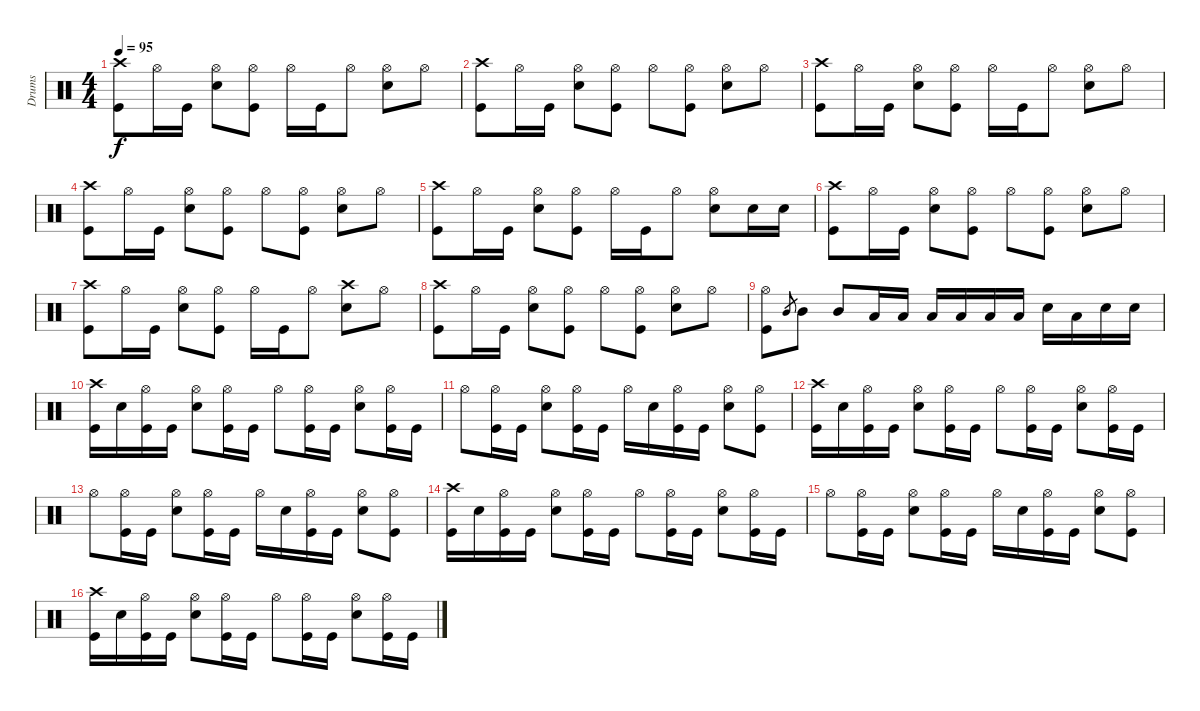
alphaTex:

\track ("Drums" "Drums") {instrument percussion}
\staff {score}
\articulation defaults
\ts (4 4)
\tempo 95
\clef neutral
\ks c
("Crash high (hit)" "Kick (hit)").8{dy f} "Hi-Hat (open)".16 "Kick (hit)".16 ("Hi-Hat (open)" "Electric Snare (hit)").8 ("Hi-Hat (open)" "Kick (hit)").8 "Hi-Hat (open)".16 "Kick (hit)".16 "Hi-Hat (open)".8 ("Hi-Hat (open)" "Electric Snare (hit)").8 "Hi-Hat (open)".8 |
("Crash high (hit)" "Kick (hit)").8 "Hi-Hat (open)".16 "Kick (hit)".16 ("Hi-Hat (open)" "Electric Snare (hit)").8 ("Hi-Hat (open)" "Kick (hit)").8 "Hi-Hat (open)".8 ("Hi-Hat (open)" "Kick (hit)").8 ("Hi-Hat (open)" "Electric Snare (hit)").8 "Hi-Hat (open)".8 |
("Crash high (hit)" "Kick (hit)").8 "Hi-Hat (open)".16 "Kick (hit)".16 ("Hi-Hat (open)" "Electric Snare (hit)").8 ("Hi-Hat (open)" "Kick (hit)").8 "Hi-Hat (open)".16 "Kick (hit)".16 "Hi-Hat (open)".8 ("Hi-Hat (open)" "Electric Snare (hit)").8 "Hi-Hat (open)".8 |
("Crash high (hit)" "Kick (hit)").8 "Hi-Hat (open)".16 "Kick (hit)".16 ("Hi-Hat (open)" "Electric Snare (hit)").8 ("Hi-Hat (open)" "Kick (hit)").8 "Hi-Hat (open)".8 ("Hi-Hat (open)" "Kick (hit)").8 ("Hi-Hat (open)" "Electric Snare (hit)").8 "Hi-Hat (open)".8 |
("Crash high (hit)" "Kick (hit)").8 "Hi-Hat (open)".16 "Kick (hit)".16 ("Hi-Hat (open)" "Electric Snare (hit)").8 ("Hi-Hat (open)" "Kick (hit)").8 "Hi-Hat (open)".16 "Kick (hit)".16 "Hi-Hat (open)".8 ("Hi-Hat (open)" "Electric Snare (hit)").8 "Electric Snare (hit)".16 "Electric Snare (hit)".16 |
("Crash high (hit)" "Kick (hit)").8 "Hi-Hat (open)".16 "Kick (hit)".16 ("Hi-Hat (open)" "Electric Snare (hit)").8 ("Hi-Hat (open)" "Kick (hit)").8 "Hi-Hat (open)".8 ("Hi-Hat (open)" "Kick (hit)").8 ("Hi-Hat (open)" "Electric Snare (hit)").8 "Hi-Hat (open)".8 |
("Crash high (hit)" "Kick (hit)").8 "Hi-Hat (open)".16 "Kick (hit)".16 ("Hi-Hat (open)" "Electric Snare (hit)").8 ("Hi-Hat (open)" "Kick (hit)").8 "Hi-Hat (open)".16 "Kick (hit)".16 "Hi-Hat (open)".8 ("Crash high (hit)" "Electric Snare (hit)").8 "Hi-Hat (open)".8 |
("Crash high (hit)" "Kick (hit)").8 "Hi-Hat (open)".16 "Kick (hit)".16 ("Hi-Hat (open)" "Electric Snare (hit)").8 ("Hi-Hat (open)" "Kick (hit)").8 "Hi-Hat (open)".8 ("Hi-Hat (open)" "Kick (hit)").8 ("Hi-Hat (open)" "Electric Snare (hit)").8 "Hi-Hat (open)".8 |
("Hi-Hat (open)" "Kick (hit)").8 "Mid Tom (hit)".8{gr} "Mid Tom (hit)".8 "Mid Tom (hit)".8 "Low Tom (hit)".16 "Low Tom (hit)".16 "Low Tom (hit)".16 "Low Tom (hit)".16 "Low Tom (hit)".16 "Low Floor Tom (hit)".16 "Electric Snare (hit)".16 "Low Floor Tom (hit)".16 "Electric Snare (hit)".16 "Electric Snare (hit)".16 |
("Crash high (hit)" "Kick (hit)").16 "Electric Snare (hit)".16 ("Hi-Hat (open)" "Kick (hit)").16 "Kick (hit)".16 ("Hi-Hat (open)" "Electric Snare (hit)").8 ("Hi-Hat (open)" "Kick (hit)").16 "Kick (hit)".16 "Hi-Hat (open)".8 ("Hi-Hat (open)" "Kick (hit)").16 "Kick (hit)".16 ("Hi-Hat (open)" "Electric Snare (hit)").8 ("Hi-Hat (open)" "Kick (hit)").16 "Kick (hit)".16 |
"Hi-Hat (open)".8 ("Hi-Hat (open)" "Kick (hit)").16 "Kick (hit)".16 ("Hi-Hat (open)" "Electric Snare (hit)").8 ("Hi-Hat (open)" "Kick (hit)").16 "Kick (hit)".16 "Hi-Hat (open)".16 "Electric Snare (hit)".16 ("Hi-Hat (open)" "Kick (hit)").16 "Kick (hit)".16 ("Hi-Hat (open)" "Electric Snare (hit)").8 ("Hi-Hat (open)" "Kick (hit)").8 |
("Crash high (hit)" "Kick (hit)").16 "Electric Snare (hit)".16 ("Hi-Hat (open)" "Kick (hit)").16 "Kick (hit)".16 ("Hi-Hat (open)" "Electric Snare (hit)").8 ("Hi-Hat (open)" "Kick (hit)").16 "Kick (hit)".16 "Hi-Hat (open)".8 ("Hi-Hat (open)" "Kick (hit)").16 "Kick (hit)".16 ("Hi-Hat (open)" "Electric Snare (hit)").8 ("Hi-Hat (open)" "Kick (hit)").16 "Kick (hit)".16 |
"Hi-Hat (open)".8 ("Hi-Hat (open)" "Kick (hit)").16 "Kick (hit)".16 ("Hi-Hat (open)" "Electric Snare (hit)").8 ("Hi-Hat (open)" "Kick (hit)").16 "Kick (hit)".16 "Hi-Hat (open)".16 "Electric Snare (hit)".16 ("Hi-Hat (open)" "Kick (hit)").16 "Kick (hit)".16 ("Hi-Hat (open)" "Electric Snare (hit)").8 ("Hi-Hat (open)" "Kick (hit)").8 |
("Crash high (hit)" "Kick (hit)").16 "Electric Snare (hit)".16 ("Hi-Hat (open)" "Kick (hit)").16 "Kick (hit)".16 ("Hi-Hat (open)" "Electric Snare (hit)").8 ("Hi-Hat (open)" "Kick (hit)").16 "Kick (hit)".16 "Hi-Hat (open)".8 ("Hi-Hat (open)" "Kick (hit)").16 "Kick (hit)".16 ("Hi-Hat (open)" "Electric Snare (hit)").8 ("Hi-Hat (open)" "Kick (hit)").16 "Kick (hit)".16 |
"Hi-Hat (open)".8 ("Hi-Hat (open)" "Kick (hit)").16 "Kick (hit)".16 ("Hi-Hat (open)" "Electric Snare (hit)").8 ("Hi-Hat (open)" "Kick (hit)").16 "Kick (hit)".16 "Hi-Hat (open)".16 "Electric Snare (hit)".16 ("Hi-Hat (open)" "Kick (hit)").16 "Kick (hit)".16 ("Hi-Hat (open)" "Electric Snare (hit)").8 ("Hi-Hat (open)" "Kick (hit)").8 |
("Crash high (hit)" "Kick (hit)").16 "Electric Snare (hit)".16 ("Hi-Hat (open)" "Kick (hit)").16 "Kick (hit)".16 ("Hi-Hat (open)" "Electric Snare (hit)").8 ("Hi-Hat (open)" "Kick (hit)").16 "Kick (hit)".16 "Hi-Hat (open)".8 ("Hi-Hat (open)" "Kick (hit)").16 "Kick (hit)".16 ("Hi-Hat (open)" "Electric Snare (hit)").8 ("Hi-Hat (open)" "Kick (hit)").16 "Kick (hit)".16
